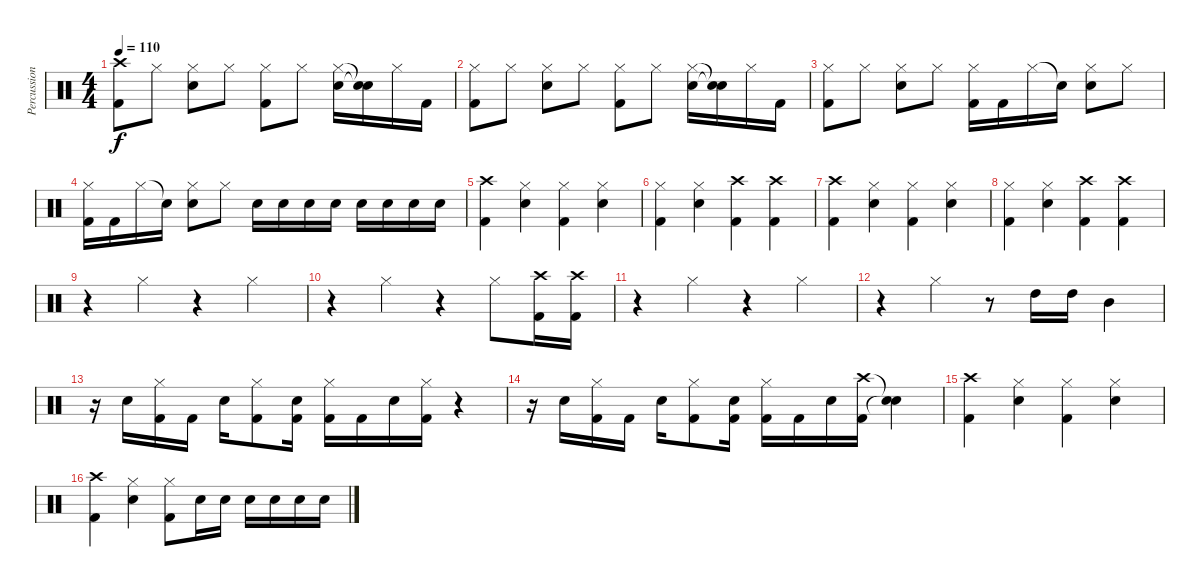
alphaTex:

\track ("Percussion" "Percussion") {instrument percussion}
\staff {score}
\articulation defaults
\ts (4 4)
\tempo 110
\clef neutral
\ks c
("Crash high (hit)" "Kick (hit) 2").8{dy f} "Hi-Hat (closed)".8 ("Hi-Hat (closed)" "Snare (hit) 2").8 "Hi-Hat (closed)".8 ("Hi-Hat (closed)" "Kick (hit) 2").8 "Hi-Hat (closed)".8 ("Hi-Hat (closed)" "Snare (hit) 2").16 ("Snare (hit)"{t} "Snare (hit)"{t}).16 "Hi-Hat (closed)".16 "Kick (hit) 2".16 |
("Hi-Hat (closed)" "Kick (hit) 2").8 "Hi-Hat (closed)".8 ("Hi-Hat (closed)" "Snare (hit) 2").8 "Hi-Hat (closed)".8 ("Hi-Hat (closed)" "Kick (hit) 2").8 "Hi-Hat (closed)".8 ("Hi-Hat (closed)" "Snare (hit) 2").16 ("Snare (hit)"{t} "Snare (hit)"{t}).16 "Hi-Hat (closed)".16 "Kick (hit) 2".16 |
("Hi-Hat (closed)" "Kick (hit) 2").8 "Hi-Hat (closed)".8 ("Hi-Hat (closed)" "Snare (hit) 2").8 "Hi-Hat (closed)".8 ("Hi-Hat (closed)" "Kick (hit) 2").16 "Kick (hit) 2".16 "Hi-Hat (closed)".16 "Snare (hit)"{t}.16 ("Hi-Hat (closed)" "Snare (hit) 2").8 "Hi-Hat (closed)".8 |
("Hi-Hat (closed)" "Kick (hit) 2").16 "Kick (hit) 2".16 "Hi-Hat (closed)".16 "Snare (hit)"{t}.16 ("Hi-Hat (closed)" "Snare (hit) 2").8 "Hi-Hat (closed)".8 "Snare (hit) 2".16 "Snare (hit) 2".16 "Snare (hit) 2".16 "Snare (hit) 2".16 "Snare (hit) 2".16 "Snare (hit) 2".16 "Snare (hit) 2".16 "Snare (hit) 2".16 |
("Crash high (hit)" "Kick (hit) 2").4 ("Hi-Hat (closed)" "Snare (hit) 2").4 ("Hi-Hat (closed)" "Kick (hit) 2").4 ("Hi-Hat (closed)" "Snare (hit) 2").4 |
("Hi-Hat (closed)" "Kick (hit) 2").4 ("Hi-Hat (closed)" "Snare (hit) 2").4 ("Crash high (hit)" "Kick (hit) 2").4 ("Crash high (hit)" "Kick (hit) 2").4 |
("Crash high (hit)" "Kick (hit) 2").4 ("Hi-Hat (closed)" "Snare (hit) 2").4 ("Hi-Hat (closed)" "Kick (hit) 2").4 ("Hi-Hat (closed)" "Snare (hit) 2").4 |
("Hi-Hat (closed)" "Kick (hit) 2").4 ("Hi-Hat (closed)" "Snare (hit) 2").4 ("Crash high (hit)" "Kick (hit) 2").4 ("Crash high (hit)" "Kick (hit) 2").4 |
r.4 "Hi-Hat (closed)".4 r.4 "Hi-Hat (closed)".4 |
r.4 "Hi-Hat (closed)".4 r.4 "Hi-Hat (closed)".8 ("Crash high (hit)" "Kick (hit) 2").16 ("Crash high (hit)" "Kick (hit) 2").16 |
r.4 "Hi-Hat (closed)".4 r.4 "Hi-Hat (closed)".4 |
r.4 "Hi-Hat (closed)".4 r.8 "High Tom (hit)".16 "High Tom (hit)".16 "Mid Tom (hit)".4 |
r.16 "Snare (hit) 2".16 ("Hi-Hat (closed)" "Kick (hit) 2").16 "Kick (hit) 2".16 "Snare (hit) 2".16 ("Hi-Hat (closed)" "Kick (hit) 2").8 ("Snare (hit) 2" "Kick (hit) 2").16 ("Hi-Hat (closed)" "Kick (hit) 2").16 "Kick (hit) 2".16 "Snare (hit) 2".16 ("Hi-Hat (closed)" "Kick (hit) 2").16 r.4 |
r.16 "Snare (hit) 2".16 ("Hi-Hat (closed)" "Kick (hit) 2").16 "Kick (hit) 2".16 "Snare (hit) 2".16 ("Hi-Hat (closed)" "Kick (hit) 2").8 ("Snare (hit) 2" "Kick (hit) 2").16 ("Hi-Hat (closed)" "Kick (hit) 2").16 "Kick (hit) 2".16 "Snare (hit) 2".16 ("Crash high (hit)" "Kick (hit) 2").16 ("Snare (hit)"{t} "Snare (hit)"{t}).4 |
("Crash high (hit)" "Kick (hit) 2").4 ("Hi-Hat (closed)" "Snare (hit) 2").4 ("Hi-Hat (closed)" "Kick (hit) 2").4 ("Hi-Hat (closed)" "Snare (hit) 2").4 |
("Crash high (hit)" "Kick (hit) 2").4 ("Hi-Hat (closed)" "Snare (hit) 2").4 ("Hi-Hat (closed)" "Kick (hit) 2").8 "Snare (hit) 2".16 "Snare (hit) 2".16 "Snare (hit) 2".16 "Snare (hit) 2".16 "Snare (hit) 2".16 "Snare (hit) 2".16
